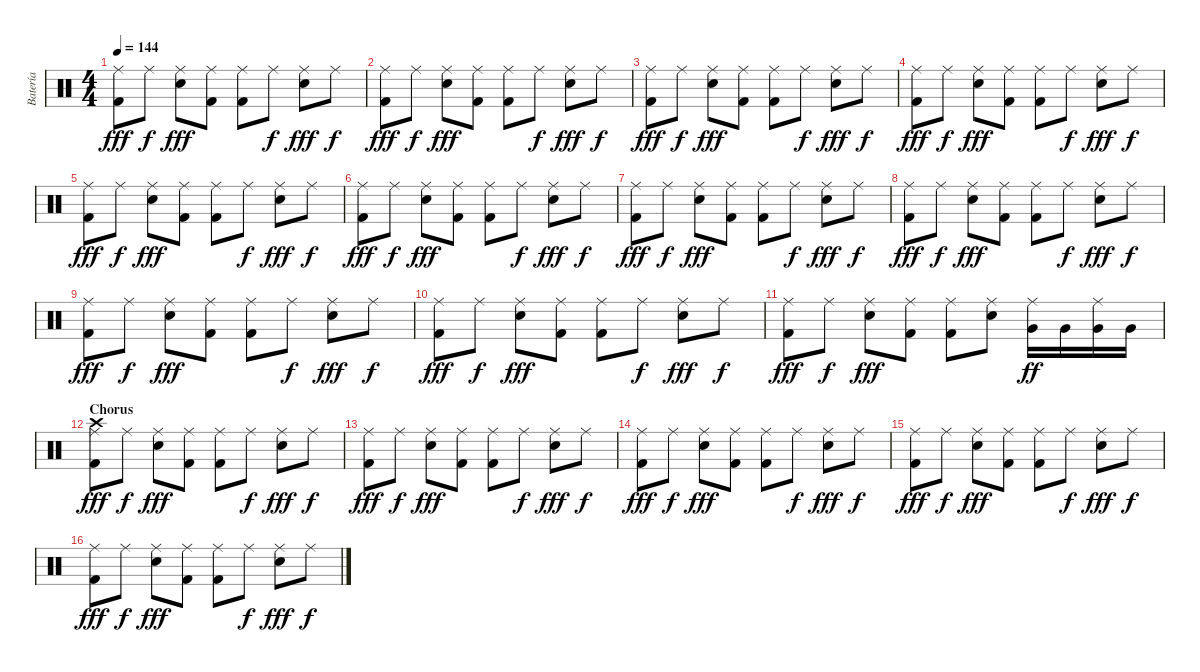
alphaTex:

\track ("Batería" "Batería") {instrument percussion}
\staff {score}
\articulation defaults
\ts (4 4)
\tempo 144
\clef neutral
\ks c
("Ride (middle)" "Kick (hit) 2").8{dy fff} "Ride (middle)".8{dy f} ("Ride (middle)" "Electric Snare (hit)").8{dy fff} ("Ride (middle)" "Kick (hit) 2").8 ("Ride (middle)" "Kick (hit) 2").8 "Ride (middle)".8{dy f} ("Ride (middle)" "Electric Snare (hit)").8{dy fff} "Ride (middle)".8{dy f} |
("Ride (middle)" "Kick (hit) 2").8{dy fff} "Ride (middle)".8{dy f} ("Ride (middle)" "Electric Snare (hit)").8{dy fff} ("Ride (middle)" "Kick (hit) 2").8 ("Ride (middle)" "Kick (hit) 2").8 "Ride (middle)".8{dy f} ("Ride (middle)" "Electric Snare (hit)").8{dy fff} "Ride (middle)".8{dy f} |
("Ride (middle)" "Kick (hit) 2").8{dy fff} "Ride (middle)".8{dy f} ("Ride (middle)" "Electric Snare (hit)").8{dy fff} ("Ride (middle)" "Kick (hit) 2").8 ("Ride (middle)" "Kick (hit) 2").8 "Ride (middle)".8{dy f} ("Ride (middle)" "Electric Snare (hit)").8{dy fff} "Ride (middle)".8{dy f} |
("Ride (middle)" "Kick (hit) 2").8{dy fff} "Ride (middle)".8{dy f} ("Ride (middle)" "Electric Snare (hit)").8{dy fff} ("Ride (middle)" "Kick (hit) 2").8 ("Ride (middle)" "Kick (hit) 2").8 "Ride (middle)".8{dy f} ("Ride (middle)" "Electric Snare (hit)").8{dy fff} "Ride (middle)".8{dy f} |
("Ride (middle)" "Kick (hit) 2").8{dy fff} "Ride (middle)".8{dy f} ("Ride (middle)" "Electric Snare (hit)").8{dy fff} ("Ride (middle)" "Kick (hit) 2").8 ("Ride (middle)" "Kick (hit) 2").8 "Ride (middle)".8{dy f} ("Ride (middle)" "Electric Snare (hit)").8{dy fff} "Ride (middle)".8{dy f} |
("Ride (middle)" "Kick (hit) 2").8{dy fff} "Ride (middle)".8{dy f} ("Ride (middle)" "Electric Snare (hit)").8{dy fff} ("Ride (middle)" "Kick (hit) 2").8 ("Ride (middle)" "Kick (hit) 2").8 "Ride (middle)".8{dy f} ("Ride (middle)" "Electric Snare (hit)").8{dy fff} "Ride (middle)".8{dy f} |
("Ride (middle)" "Kick (hit) 2").8{dy fff} "Ride (middle)".8{dy f} ("Ride (middle)" "Electric Snare (hit)").8{dy fff} ("Ride (middle)" "Kick (hit) 2").8 ("Ride (middle)" "Kick (hit) 2").8 "Ride (middle)".8{dy f} ("Ride (middle)" "Electric Snare (hit)").8{dy fff} "Ride (middle)".8{dy f} |
("Ride (middle)" "Kick (hit) 2").8{dy fff} "Ride (middle)".8{dy f} ("Ride (middle)" "Electric Snare (hit)").8{dy fff} ("Ride (middle)" "Kick (hit) 2").8 ("Ride (middle)" "Kick (hit) 2").8 "Ride (middle)".8{dy f} ("Ride (middle)" "Electric Snare (hit)").8{dy fff} "Ride (middle)".8{dy f} |
("Ride (middle)" "Kick (hit) 2").8{dy fff} "Ride (middle)".8{dy f} ("Ride (middle)" "Electric Snare (hit)").8{dy fff} ("Ride (middle)" "Kick (hit) 2").8 ("Ride (middle)" "Kick (hit) 2").8 "Ride (middle)".8{dy f} ("Ride (middle)" "Electric Snare (hit)").8{dy fff} "Ride (middle)".8{dy f} |
("Ride (middle)" "Kick (hit) 2").8{dy fff} "Ride (middle)".8{dy f} ("Ride (middle)" "Electric Snare (hit)").8{dy fff} ("Ride (middle)" "Kick (hit) 2").8 ("Ride (middle)" "Kick (hit) 2").8 "Ride (middle)".8{dy f} ("Ride (middle)" "Electric Snare (hit)").8{dy fff} "Ride (middle)".8{dy f} |
("Ride (middle)" "Kick (hit) 2").8{dy fff} "Ride (middle)".8{dy f} ("Ride (middle)" "Electric Snare (hit)").8{dy fff} ("Ride (middle)" "Kick (hit) 2").8 ("Ride (middle)" "Kick (hit) 2").8 ("Ride (middle)" "Electric Snare (hit)").8 ("Ride (middle)" "Very Low Tom (hit)").16{dy ff} "Very Low Tom (hit)".16 ("Ride (middle)" "Very Low Tom (hit)").16 "Very Low Tom (hit)".16 |
\section ("" "Chorus")
("Ride (middle)" "Kick (hit) 2" "Crash high (hit)").8{dy fff} "Ride (middle)".8{dy f} ("Ride (middle)" "Electric Snare (hit)").8{dy fff} ("Ride (middle)" "Kick (hit) 2").8 ("Ride (middle)" "Kick (hit) 2").8 "Ride (middle)".8{dy f} ("Ride (middle)" "Electric Snare (hit)").8{dy fff} "Ride (middle)".8{dy f} |
("Ride (middle)" "Kick (hit) 2").8{dy fff} "Ride (middle)".8{dy f} ("Ride (middle)" "Electric Snare (hit)").8{dy fff} ("Ride (middle)" "Kick (hit) 2").8 ("Ride (middle)" "Kick (hit) 2").8 "Ride (middle)".8{dy f} ("Ride (middle)" "Electric Snare (hit)").8{dy fff} "Ride (middle)".8{dy f} |
("Ride (middle)" "Kick (hit) 2").8{dy fff} "Ride (middle)".8{dy f} ("Ride (middle)" "Electric Snare (hit)").8{dy fff} ("Ride (middle)" "Kick (hit) 2").8 ("Ride (middle)" "Kick (hit) 2").8 "Ride (middle)".8{dy f} ("Ride (middle)" "Electric Snare (hit)").8{dy fff} "Ride (middle)".8{dy f} |
("Ride (middle)" "Kick (hit) 2").8{dy fff} "Ride (middle)".8{dy f} ("Ride (middle)" "Electric Snare (hit)").8{dy fff} ("Ride (middle)" "Kick (hit) 2").8 ("Ride (middle)" "Kick (hit) 2").8 "Ride (middle)".8{dy f} ("Ride (middle)" "Electric Snare (hit)").8{dy fff} "Ride (middle)".8{dy f} |
("Ride (middle)" "Kick (hit) 2").8{dy fff} "Ride (middle)".8{dy f} ("Ride (middle)" "Electric Snare (hit)").8{dy fff} ("Ride (middle)" "Kick (hit) 2").8 ("Ride (middle)" "Kick (hit) 2").8 "Ride (middle)".8{dy f} ("Ride (middle)" "Electric Snare (hit)").8{dy fff} "Ride (middle)".8{dy f}
